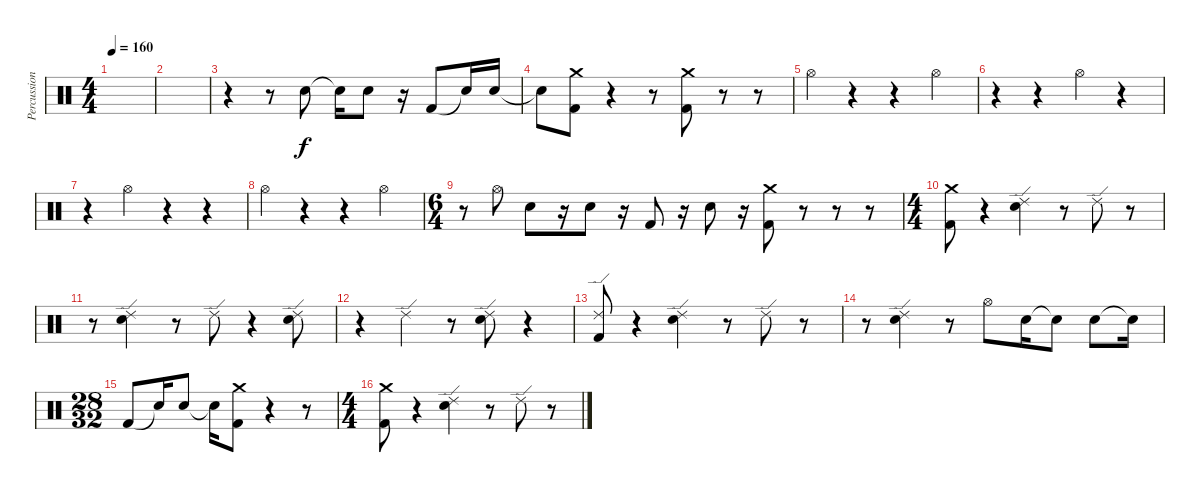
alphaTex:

\track ("Percussion" "Percussion") {instrument percussion}
\staff {score}
\articulation defaults
\ts (4 4)
\tempo 160
\clef neutral
\ks c
|
|
r.4 r.8 "Electric Snare (hit)".8 "Snare (hit)"{t}.16 "Electric Snare (hit)".8 r.16 "Kick (hit) 2".8 "Snare (hit)"{t}.16 "Electric Snare (hit)".16 |
"Electric Snare (hit)"{t}.8 ("Crash medium (hit)" "Kick (hit) 2").8 r.4 r.8 ("Crash medium (hit)" "Kick (hit) 2").8 r.8 r.8 |
"Hi-Hat (open)".4 r.4 r.4 "Hi-Hat (open)".4 |
r.4 r.4 "Hi-Hat (open)".4 r.4 |
r.4 "Hi-Hat (open)".4 r.4 r.4 |
"Hi-Hat (open)".4 r.4 r.4 "Hi-Hat (open)".4 |
\ts (6 4)
r.8 "Hi-Hat (open)".8 "Electric Snare (hit)".8 r.16 "Electric Snare (hit)".8 r.16 "Kick (hit) 2".8 r.16 "Electric Snare (hit)".8 r.16 ("Kick (hit) 2" "Crash medium (hit)").8 r.8 r.8 r.8 |
\ts (4 4)
("Crash medium (hit)" "Kick (hit) 2").8 r.4 ("Ride (edge) 2" "Electric Snare (hit)").4 r.8 "Ride (edge) 2".8 r.8 |
r.8 ("Ride (edge) 2" "Electric Snare (hit)").4 r.8 "Ride (edge) 2".8 r.4 ("Ride (edge) 2" "Electric Snare (hit)").8 |
r.4 "Ride (edge) 2".4 r.8 ("Ride (edge) 2" "Electric Snare (hit)").8 r.4 |
("Ride (edge) 2" "Kick (hit) 2").8 r.4 ("Ride (edge) 2" "Electric Snare (hit)").4 r.8 "Ride (edge) 2".8 r.8 |
r.8 ("Ride (edge) 2" "Electric Snare (hit)").4 r.8 "Hi-Hat (open)".8 "Electric Snare (hit)".16 "Electric Snare (hit)"{t}.8 "Electric Snare (hit)".8 "Snare (hit)"{t}.16 |
\ts (28 32)
"Kick (hit) 2".8 "Snare (hit)"{t}.16 "Electric Snare (hit)".8 "Snare (hit)"{t}.16 ("Crash medium (hit)" "Kick (hit) 2").8 r.4 r.8 |
\ts (4 4)
("Crash medium (hit)" "Kick (hit) 2").8 r.4 ("Ride (edge) 2" "Electric Snare (hit)").4 r.8 "Ride (edge) 2".8 r.8
